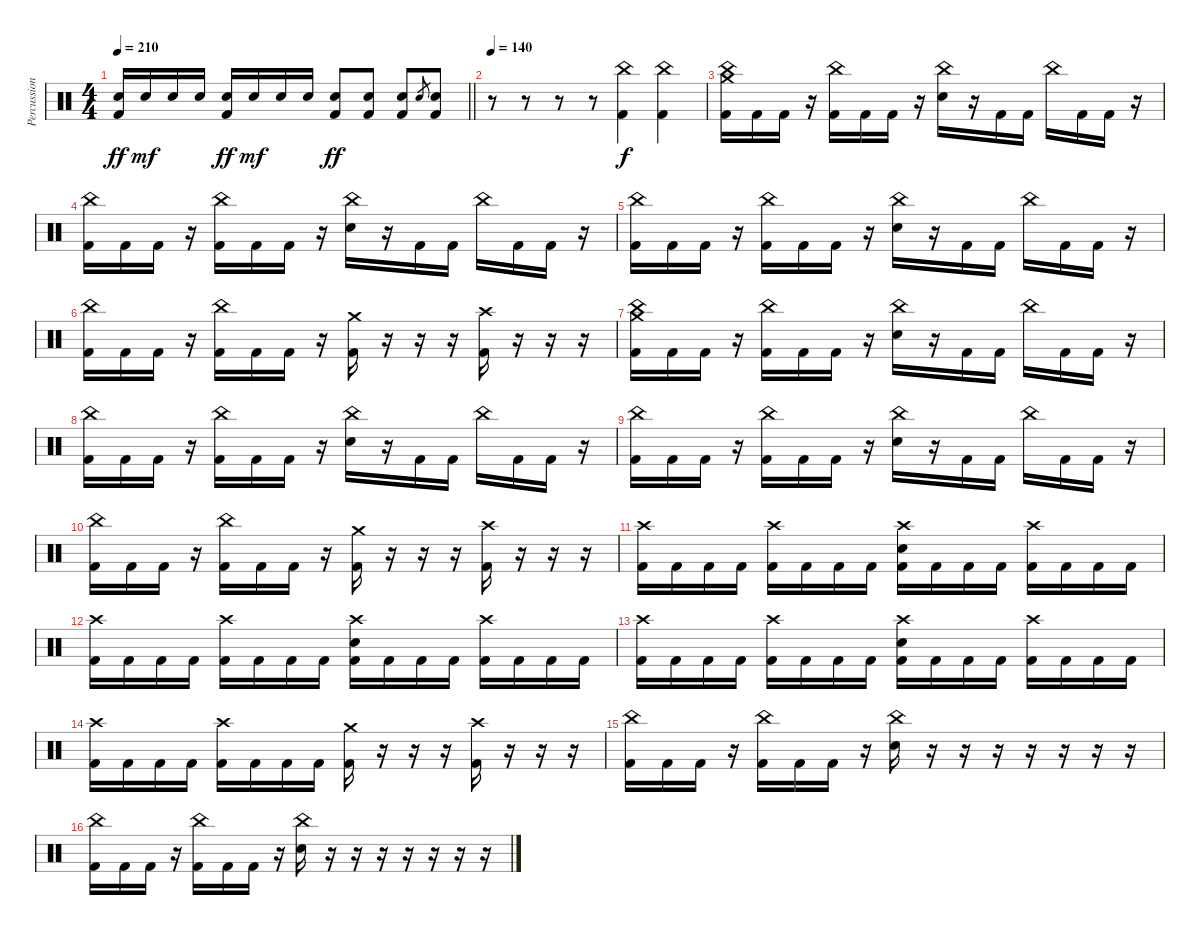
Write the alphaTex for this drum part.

\track ("Percussion" "Percussion") {instrument percussion}
\staff {score}
\articulation defaults
\ts (4 4)
\tempo 210
\clef neutral
\barLineRight lightlight
\ks c
("Snare (hit) 2" "Kick (hit) 2").16{dy ff} "Snare (hit) 2".16{dy mf} "Snare (hit) 2".16 "Snare (hit) 2".16 ("Snare (hit) 2" "Kick (hit) 2").16{dy ff} "Snare (hit) 2".16{dy mf} "Snare (hit) 2".16 "Snare (hit) 2".16 ("Snare (hit) 2" "Kick (hit) 2").8{dy ff} ("Snare (hit) 2" "Kick (hit) 2").8 ("Snare (hit) 2" "Kick (hit) 2").8 "Snare (hit) 2".8{gr} ("Snare (hit) 2" "Kick (hit) 2").8 |
\section ("" "")
\tempo 140
r.8 r.8 r.8 r.8 ("China (hit)" "Kick (hit) 2").4{dy f} ("China (hit)" "Kick (hit) 2").4 |
("China (hit)" "Crash medium (hit)" "Kick (hit) 2").16 "Kick (hit) 2".16 "Kick (hit) 2".16 r.16 ("China (hit)" "Kick (hit) 2").16 "Kick (hit) 2".16 "Kick (hit) 2".16 r.16 ("China (hit)" "Snare (hit) 2").16 r.16 "Kick (hit) 2".16 "Kick (hit) 2".16 "China (hit)".16 "Kick (hit) 2".16 "Kick (hit) 2".16 r.16 |
("China (hit)" "Kick (hit) 2").16 "Kick (hit) 2".16 "Kick (hit) 2".16 r.16 ("China (hit)" "Kick (hit) 2").16 "Kick (hit) 2".16 "Kick (hit) 2".16 r.16 ("China (hit)" "Snare (hit) 2").16 r.16 "Kick (hit) 2".16 "Kick (hit) 2".16 "China (hit)".16 "Kick (hit) 2".16 "Kick (hit) 2".16 r.16 |
("China (hit)" "Kick (hit) 2").16 "Kick (hit) 2".16 "Kick (hit) 2".16 r.16 ("China (hit)" "Kick (hit) 2").16 "Kick (hit) 2".16 "Kick (hit) 2".16 r.16 ("China (hit)" "Snare (hit) 2").16 r.16 "Kick (hit) 2".16 "Kick (hit) 2".16 "China (hit)".16 "Kick (hit) 2".16 "Kick (hit) 2".16 r.16 |
("China (hit)" "Kick (hit) 2").16 "Kick (hit) 2".16 "Kick (hit) 2".16 r.16 ("China (hit)" "Kick (hit) 2").16 "Kick (hit) 2".16 "Kick (hit) 2".16 r.16 ("Crash medium (hit)" "Kick (hit) 2").16 r.16 r.16 r.16 ("Crash high (hit)" "Kick (hit) 2").16 r.16 r.16 r.16 |
("China (hit)" "Crash medium (hit)" "Kick (hit) 2").16 "Kick (hit) 2".16 "Kick (hit) 2".16 r.16 ("China (hit)" "Kick (hit) 2").16 "Kick (hit) 2".16 "Kick (hit) 2".16 r.16 ("China (hit)" "Snare (hit) 2").16 r.16 "Kick (hit) 2".16 "Kick (hit) 2".16 "China (hit)".16 "Kick (hit) 2".16 "Kick (hit) 2".16 r.16 |
("China (hit)" "Kick (hit) 2").16 "Kick (hit) 2".16 "Kick (hit) 2".16 r.16 ("China (hit)" "Kick (hit) 2").16 "Kick (hit) 2".16 "Kick (hit) 2".16 r.16 ("China (hit)" "Snare (hit) 2").16 r.16 "Kick (hit) 2".16 "Kick (hit) 2".16 "China (hit)".16 "Kick (hit) 2".16 "Kick (hit) 2".16 r.16 |
("China (hit)" "Kick (hit) 2").16 "Kick (hit) 2".16 "Kick (hit) 2".16 r.16 ("China (hit)" "Kick (hit) 2").16 "Kick (hit) 2".16 "Kick (hit) 2".16 r.16 ("China (hit)" "Snare (hit) 2").16 r.16 "Kick (hit) 2".16 "Kick (hit) 2".16 "China (hit)".16 "Kick (hit) 2".16 "Kick (hit) 2".16 r.16 |
("China (hit)" "Kick (hit) 2").16 "Kick (hit) 2".16 "Kick (hit) 2".16 r.16 ("China (hit)" "Kick (hit) 2").16 "Kick (hit) 2".16 "Kick (hit) 2".16 r.16 ("Crash medium (hit)" "Kick (hit) 2").16 r.16 r.16 r.16 ("Crash high (hit)" "Kick (hit) 2").16 r.16 r.16 r.16 |
("Crash high (hit)" "Kick (hit) 2").16 "Kick (hit) 2".16 "Kick (hit) 2".16 "Kick (hit) 2".16 ("Crash high (hit)" "Kick (hit) 2").16 "Kick (hit) 2".16 "Kick (hit) 2".16 "Kick (hit) 2".16 ("Crash high (hit)" "Snare (hit) 2" "Kick (hit) 2").16 "Kick (hit) 2".16 "Kick (hit) 2".16 "Kick (hit) 2".16 ("Crash high (hit)" "Kick (hit) 2").16 "Kick (hit) 2".16 "Kick (hit) 2".16 "Kick (hit) 2".16 |
("Crash high (hit)" "Kick (hit) 2").16 "Kick (hit) 2".16 "Kick (hit) 2".16 "Kick (hit) 2".16 ("Crash high (hit)" "Kick (hit) 2").16 "Kick (hit) 2".16 "Kick (hit) 2".16 "Kick (hit) 2".16 ("Crash high (hit)" "Snare (hit) 2" "Kick (hit) 2").16 "Kick (hit) 2".16 "Kick (hit) 2".16 "Kick (hit) 2".16 ("Crash high (hit)" "Kick (hit) 2").16 "Kick (hit) 2".16 "Kick (hit) 2".16 "Kick (hit) 2".16 |
("Crash high (hit)" "Kick (hit) 2").16 "Kick (hit) 2".16 "Kick (hit) 2".16 "Kick (hit) 2".16 ("Crash high (hit)" "Kick (hit) 2").16 "Kick (hit) 2".16 "Kick (hit) 2".16 "Kick (hit) 2".16 ("Crash high (hit)" "Snare (hit) 2" "Kick (hit) 2").16 "Kick (hit) 2".16 "Kick (hit) 2".16 "Kick (hit) 2".16 ("Crash high (hit)" "Kick (hit) 2").16 "Kick (hit) 2".16 "Kick (hit) 2".16 "Kick (hit) 2".16 |
("Crash high (hit)" "Kick (hit) 2").16 "Kick (hit) 2".16 "Kick (hit) 2".16 "Kick (hit) 2".16 ("Crash high (hit)" "Kick (hit) 2").16 "Kick (hit) 2".16 "Kick (hit) 2".16 "Kick (hit) 2".16 ("Crash medium (hit)" "Kick (hit) 2").16 r.16 r.16 r.16 ("Crash high (hit)" "Kick (hit) 2").16 r.16 r.16 r.16 |
("China (hit)" "Kick (hit) 2").16 "Kick (hit) 2".16 "Kick (hit) 2".16 r.16 ("China (hit)" "Kick (hit) 2").16 "Kick (hit) 2".16 "Kick (hit) 2".16 r.16 ("China (hit)" "Snare (hit) 2").16 r.16 r.16 r.16 r.16 r.16 r.16 r.16 |
("China (hit)" "Kick (hit) 2").16 "Kick (hit) 2".16 "Kick (hit) 2".16 r.16 ("China (hit)" "Kick (hit) 2").16 "Kick (hit) 2".16 "Kick (hit) 2".16 r.16 ("China (hit)" "Snare (hit) 2").16 r.16 r.16 r.16 r.16 r.16 r.16 r.16
